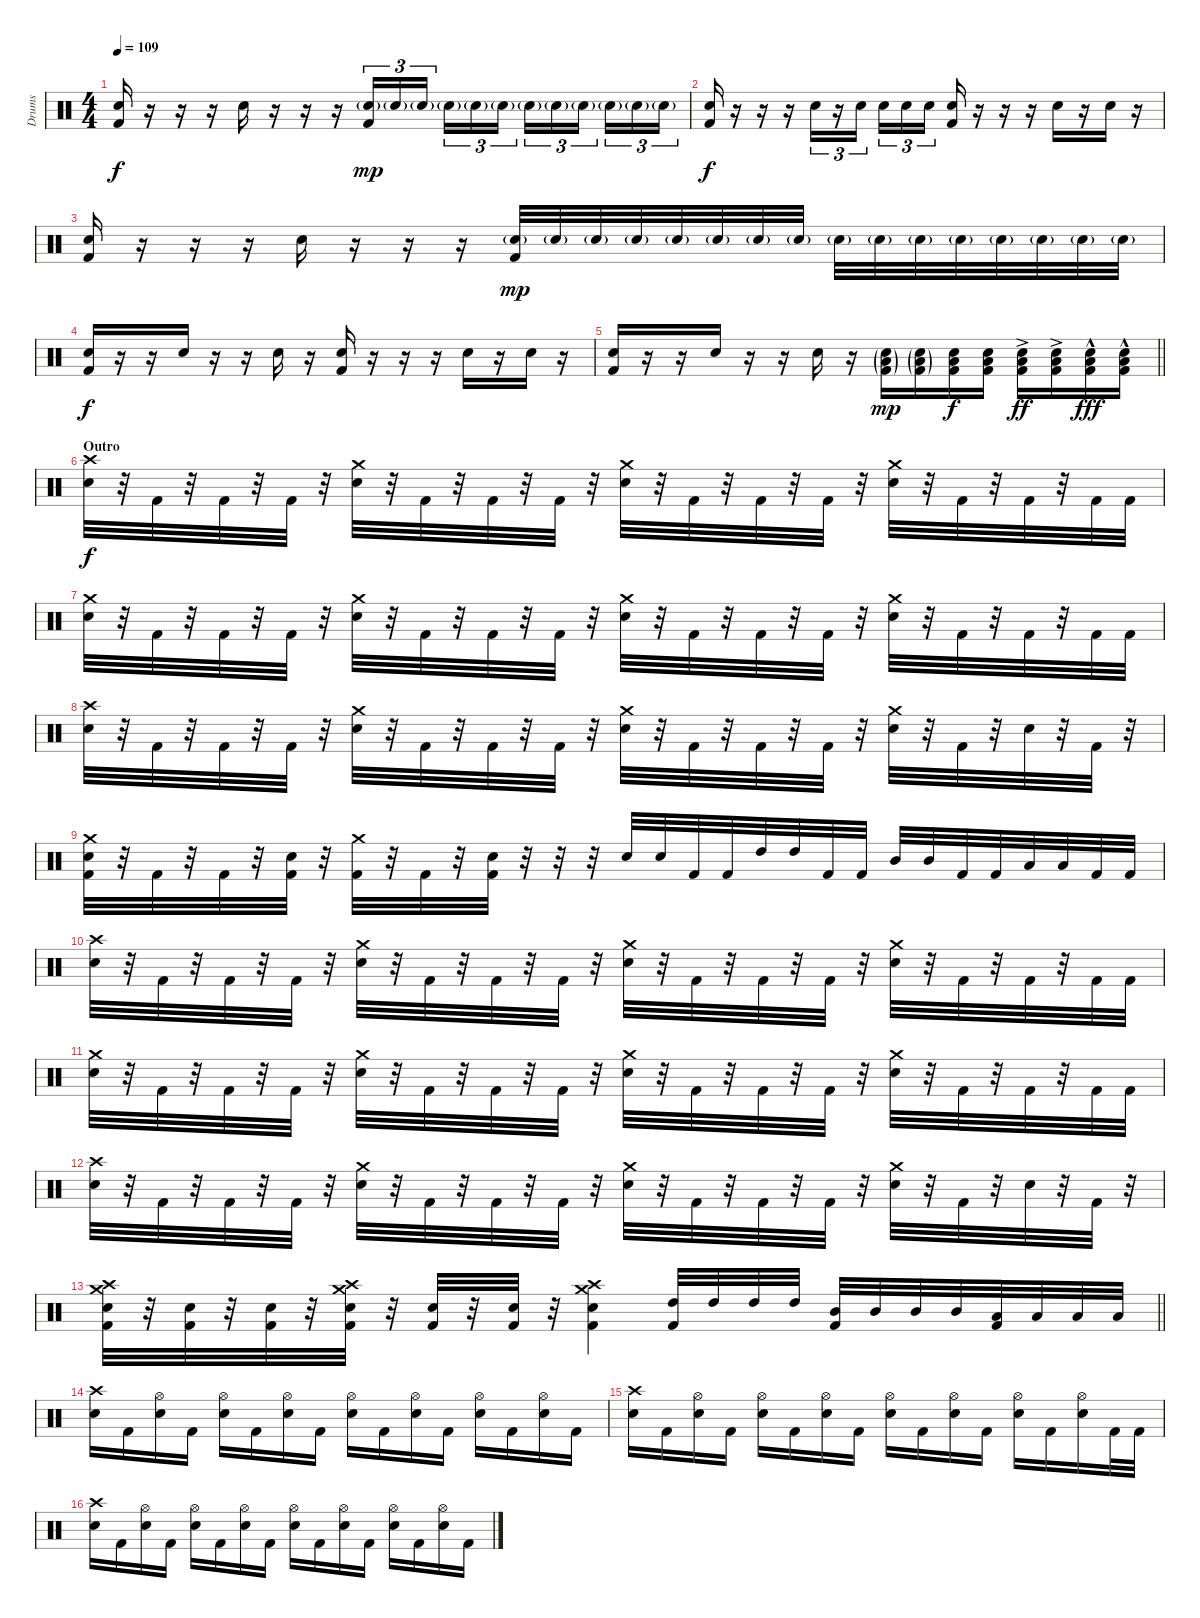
\track ("Drums" "Drums") {instrument percussion}
\staff {score}
\articulation defaults
\ts (4 4)
\tempo 109
\clef neutral
\ks c
("Snare (hit) 2" "Kick (hit) 2").16{dy f} r.16 r.16 r.16 "Snare (hit) 2".16 r.16 r.16 r.16 ("Snare (hit) 2"{g} "Kick (hit) 2").16{tu (3 2) dy mp} "Snare (hit) 2"{g}.16{tu (3 2)} "Snare (hit) 2"{g}.16{tu (3 2) beam splitsecondary} "Snare (hit) 2"{g}.16{tu (3 2)} "Snare (hit) 2"{g}.16{tu (3 2)} "Snare (hit) 2"{g}.16{tu (3 2)} "Snare (hit) 2"{g}.16{tu (3 2)} "Snare (hit) 2"{g}.16{tu (3 2)} "Snare (hit) 2"{g}.16{tu (3 2) beam splitsecondary} "Snare (hit) 2"{g}.16{tu (3 2)} "Snare (hit) 2"{g}.16{tu (3 2)} "Snare (hit) 2"{g}.16{tu (3 2)} |
("Snare (hit) 2" "Kick (hit) 2").16{dy f} r.16 r.16 r.16 "Snare (hit) 2".16{tu (3 2)} r.16{tu (3 2)} "Snare (hit) 2".16{tu (3 2) beam splitsecondary} "Snare (hit) 2".16{tu (3 2)} "Snare (hit) 2".16{tu (3 2)} "Snare (hit) 2".16{tu (3 2)} ("Snare (hit) 2" "Kick (hit) 2").16 r.16 r.16 r.16 "Snare (hit) 2".16 r.16 "Snare (hit) 2".16 r.16 |
("Snare (hit) 2" "Kick (hit) 2").16 r.16 r.16 r.16 "Snare (hit) 2".16 r.16 r.16 r.16 ("Snare (hit) 2"{g} "Kick (hit) 2").32{dy mp} "Snare (hit) 2"{g}.32 "Snare (hit) 2"{g}.32 "Snare (hit) 2"{g}.32 "Snare (hit) 2"{g}.32 "Snare (hit) 2"{g}.32 "Snare (hit) 2"{g}.32 "Snare (hit) 2"{g}.32 "Snare (hit) 2"{g}.32 "Snare (hit) 2"{g}.32 "Snare (hit) 2"{g}.32 "Snare (hit) 2"{g}.32 "Snare (hit) 2"{g}.32 "Snare (hit) 2"{g}.32 "Snare (hit) 2"{g}.32 "Snare (hit) 2"{g}.32 |
("Snare (hit) 2" "Kick (hit) 2").16{dy f} r.16 r.16 "Snare (hit) 2".16 r.16 r.16 "Snare (hit) 2".16 r.16 ("Snare (hit) 2" "Kick (hit) 2").16 r.16 r.16 r.16 "Snare (hit) 2".16 r.16 "Snare (hit) 2".16 r.16 |
\barLineRight lightlight
("Snare (hit) 2" "Kick (hit) 2").16 r.16 r.16 "Snare (hit) 2".16 r.16 r.16 "Snare (hit) 2".16 r.16 ("Low Tom (hit)"{g} "Snare (hit) 2"{g} "Kick (hit) 2"{g}).16{dy mp} ("Low Tom (hit)"{g} "Snare (hit) 2"{g} "Kick (hit) 2"{g}).16 ("Low Tom (hit)" "Snare (hit) 2" "Kick (hit) 2").16{dy f} ("Low Tom (hit)" "Snare (hit) 2" "Kick (hit) 2").16 ("Low Tom (hit)"{ac} "Snare (hit) 2"{ac} "Kick (hit) 2"{ac}).16{dy ff} ("Low Tom (hit)"{ac} "Snare (hit) 2"{ac} "Kick (hit) 2"{ac}).16 ("Low Tom (hit)"{hac} "Snare (hit) 2"{hac} "Kick (hit) 2"{hac}).16{dy fff} ("Low Tom (hit)"{hac} "Snare (hit) 2"{hac} "Kick (hit) 2"{hac}).16 |
\section ("" "Outro")
("Crash high (hit)" "Snare (hit) 2").32{dy f} r.32 "Kick (hit) 2".32 r.32 "Kick (hit) 2".32 r.32 "Kick (hit) 2".32 r.32 ("Crash medium (hit)" "Snare (hit) 2").32 r.32 "Kick (hit) 2".32 r.32 "Kick (hit) 2".32 r.32 "Kick (hit) 2".32 r.32 ("Crash medium (hit)" "Snare (hit) 2").32 r.32 "Kick (hit) 2".32 r.32 "Kick (hit) 2".32 r.32 "Kick (hit) 2".32 r.32 ("Crash medium (hit)" "Snare (hit) 2").32 r.32 "Kick (hit) 2".32 r.32 "Kick (hit) 2".32 r.32 "Kick (hit) 2".32 "Kick (hit) 2".32 |
("Crash medium (hit)" "Snare (hit) 2").32 r.32 "Kick (hit) 2".32 r.32 "Kick (hit) 2".32 r.32 "Kick (hit) 2".32 r.32 ("Crash medium (hit)" "Snare (hit) 2").32 r.32 "Kick (hit) 2".32 r.32 "Kick (hit) 2".32 r.32 "Kick (hit) 2".32 r.32 ("Crash medium (hit)" "Snare (hit) 2").32 r.32 "Kick (hit) 2".32 r.32 "Kick (hit) 2".32 r.32 "Kick (hit) 2".32 r.32 ("Crash medium (hit)" "Snare (hit) 2").32 r.32 "Kick (hit) 2".32 r.32 "Kick (hit) 2".32 r.32 "Kick (hit) 2".32 "Kick (hit) 2".32 |
("Crash high (hit)" "Snare (hit) 2").32 r.32 "Kick (hit) 2".32 r.32 "Kick (hit) 2".32 r.32 "Kick (hit) 2".32 r.32 ("Crash medium (hit)" "Snare (hit) 2").32 r.32 "Kick (hit) 2".32 r.32 "Kick (hit) 2".32 r.32 "Kick (hit) 2".32 r.32 ("Crash medium (hit)" "Snare (hit) 2").32 r.32 "Kick (hit) 2".32 r.32 "Kick (hit) 2".32 r.32 "Kick (hit) 2".32 r.32 ("Crash medium (hit)" "Snare (hit) 2").32 r.32 "Kick (hit) 2".32 r.32 "Snare (hit) 2".32 r.32 "Kick (hit) 2".32 r.32 |
("Crash medium (hit)" "Snare (hit) 2" "Kick (hit) 2").32 r.32 "Kick (hit) 2".32 r.32 "Kick (hit) 2".32 r.32 ("Snare (hit) 2" "Kick (hit) 2").32 r.32 ("Crash medium (hit)" "Kick (hit) 2").32 r.32 "Kick (hit) 2".32 r.32 ("Snare (hit) 2" "Kick (hit) 2").32 r.32 r.32 r.32 "Snare (hit) 2".32 "Snare (hit) 2".32 "Kick (hit) 2".32 "Kick (hit) 2".32 "High Tom (hit)".32 "High Tom (hit)".32 "Kick (hit) 2".32 "Kick (hit) 2".32 "Mid Tom (hit)".32 "Mid Tom (hit)".32 "Kick (hit) 2".32 "Kick (hit) 2".32 "Low Tom (hit)".32 "Low Tom (hit)".32 "Kick (hit) 2".32 "Kick (hit) 2".32 |
("Crash high (hit)" "Snare (hit) 2").32 r.32 "Kick (hit) 2".32 r.32 "Kick (hit) 2".32 r.32 "Kick (hit) 2".32 r.32 ("Crash medium (hit)" "Snare (hit) 2").32 r.32 "Kick (hit) 2".32 r.32 "Kick (hit) 2".32 r.32 "Kick (hit) 2".32 r.32 ("Crash medium (hit)" "Snare (hit) 2").32 r.32 "Kick (hit) 2".32 r.32 "Kick (hit) 2".32 r.32 "Kick (hit) 2".32 r.32 ("Crash medium (hit)" "Snare (hit) 2").32 r.32 "Kick (hit) 2".32 r.32 "Kick (hit) 2".32 r.32 "Kick (hit) 2".32 "Kick (hit) 2".32 |
("Crash medium (hit)" "Snare (hit) 2").32 r.32 "Kick (hit) 2".32 r.32 "Kick (hit) 2".32 r.32 "Kick (hit) 2".32 r.32 ("Crash medium (hit)" "Snare (hit) 2").32 r.32 "Kick (hit) 2".32 r.32 "Kick (hit) 2".32 r.32 "Kick (hit) 2".32 r.32 ("Crash medium (hit)" "Snare (hit) 2").32 r.32 "Kick (hit) 2".32 r.32 "Kick (hit) 2".32 r.32 "Kick (hit) 2".32 r.32 ("Crash medium (hit)" "Snare (hit) 2").32 r.32 "Kick (hit) 2".32 r.32 "Kick (hit) 2".32 r.32 "Kick (hit) 2".32 "Kick (hit) 2".32 |
("Crash high (hit)" "Snare (hit) 2").32 r.32 "Kick (hit) 2".32 r.32 "Kick (hit) 2".32 r.32 "Kick (hit) 2".32 r.32 ("Crash medium (hit)" "Snare (hit) 2").32 r.32 "Kick (hit) 2".32 r.32 "Kick (hit) 2".32 r.32 "Kick (hit) 2".32 r.32 ("Crash medium (hit)" "Snare (hit) 2").32 r.32 "Kick (hit) 2".32 r.32 "Kick (hit) 2".32 r.32 "Kick (hit) 2".32 r.32 ("Crash medium (hit)" "Snare (hit) 2").32 r.32 "Kick (hit) 2".32 r.32 "Snare (hit) 2".32 r.32 "Kick (hit) 2".32 r.32 |
\barLineRight lightlight
("Crash medium (hit)" "Crash high (hit)" "Snare (hit) 2" "Kick (hit) 2").32 r.32 ("Snare (hit) 2" "Kick (hit) 2").32 r.32 ("Snare (hit) 2" "Kick (hit) 2").32 r.32 ("Crash medium (hit)" "Crash high (hit)" "Snare (hit) 2" "Kick (hit) 2").32 r.32 ("Snare (hit) 2" "Kick (hit) 2").32 r.32 ("Snare (hit) 2" "Kick (hit) 2").32 r.32 ("Crash medium (hit)" "Crash high (hit)" "Snare (hit) 2" "Kick (hit) 2").4 ("High Tom (hit)" "Kick (hit) 2").32 "High Tom (hit)".32 "High Tom (hit)".32 "High Tom (hit)".32 ("Mid Tom (hit)" "Kick (hit) 2").32 "Mid Tom (hit)".32 "Mid Tom (hit)".32 "Mid Tom (hit)".32 ("Low Tom (hit)" "Kick (hit) 2").32 "Low Tom (hit)".32 "Low Tom (hit)".32 "Low Tom (hit)".32 |
("Crash high (hit)" "Snare (hit) 2").16 "Kick (hit) 2".16 ("Hi-Hat (open)" "Snare (hit) 2").16 "Kick (hit) 2".16 ("Hi-Hat (open)" "Snare (hit) 2").16 "Kick (hit) 2".16 ("Hi-Hat (open)" "Snare (hit) 2").16 "Kick (hit) 2".16 ("Hi-Hat (open)" "Snare (hit) 2").16 "Kick (hit) 2".16 ("Hi-Hat (open)" "Snare (hit) 2").16 "Kick (hit) 2".16 ("Hi-Hat (open)" "Snare (hit) 2").16 "Kick (hit) 2".16 ("Hi-Hat (open)" "Snare (hit) 2").16 "Kick (hit) 2".16 |
("Crash high (hit)" "Snare (hit) 2").16 "Kick (hit) 2".16 ("Hi-Hat (open)" "Snare (hit) 2").16 "Kick (hit) 2".16 ("Hi-Hat (open)" "Snare (hit) 2").16 "Kick (hit) 2".16 ("Hi-Hat (open)" "Snare (hit) 2").16 "Kick (hit) 2".16 ("Hi-Hat (open)" "Snare (hit) 2").16 "Kick (hit) 2".16 ("Hi-Hat (open)" "Snare (hit) 2").16 "Kick (hit) 2".16 ("Hi-Hat (open)" "Snare (hit) 2").16 "Kick (hit) 2".16 ("Hi-Hat (open)" "Snare (hit) 2").16 "Kick (hit) 2".32 "Kick (hit) 2".32 |
("Crash high (hit)" "Snare (hit) 2").16 "Kick (hit) 2".16 ("Hi-Hat (open)" "Snare (hit) 2").16 "Kick (hit) 2".16 ("Hi-Hat (open)" "Snare (hit) 2").16 "Kick (hit) 2".16 ("Hi-Hat (open)" "Snare (hit) 2").16 "Kick (hit) 2".16 ("Hi-Hat (open)" "Snare (hit) 2").16 "Kick (hit) 2".16 ("Hi-Hat (open)" "Snare (hit) 2").16 "Kick (hit) 2".16 ("Hi-Hat (open)" "Snare (hit) 2").16 "Kick (hit) 2".16 ("Hi-Hat (open)" "Snare (hit) 2").16 "Kick (hit) 2".16
